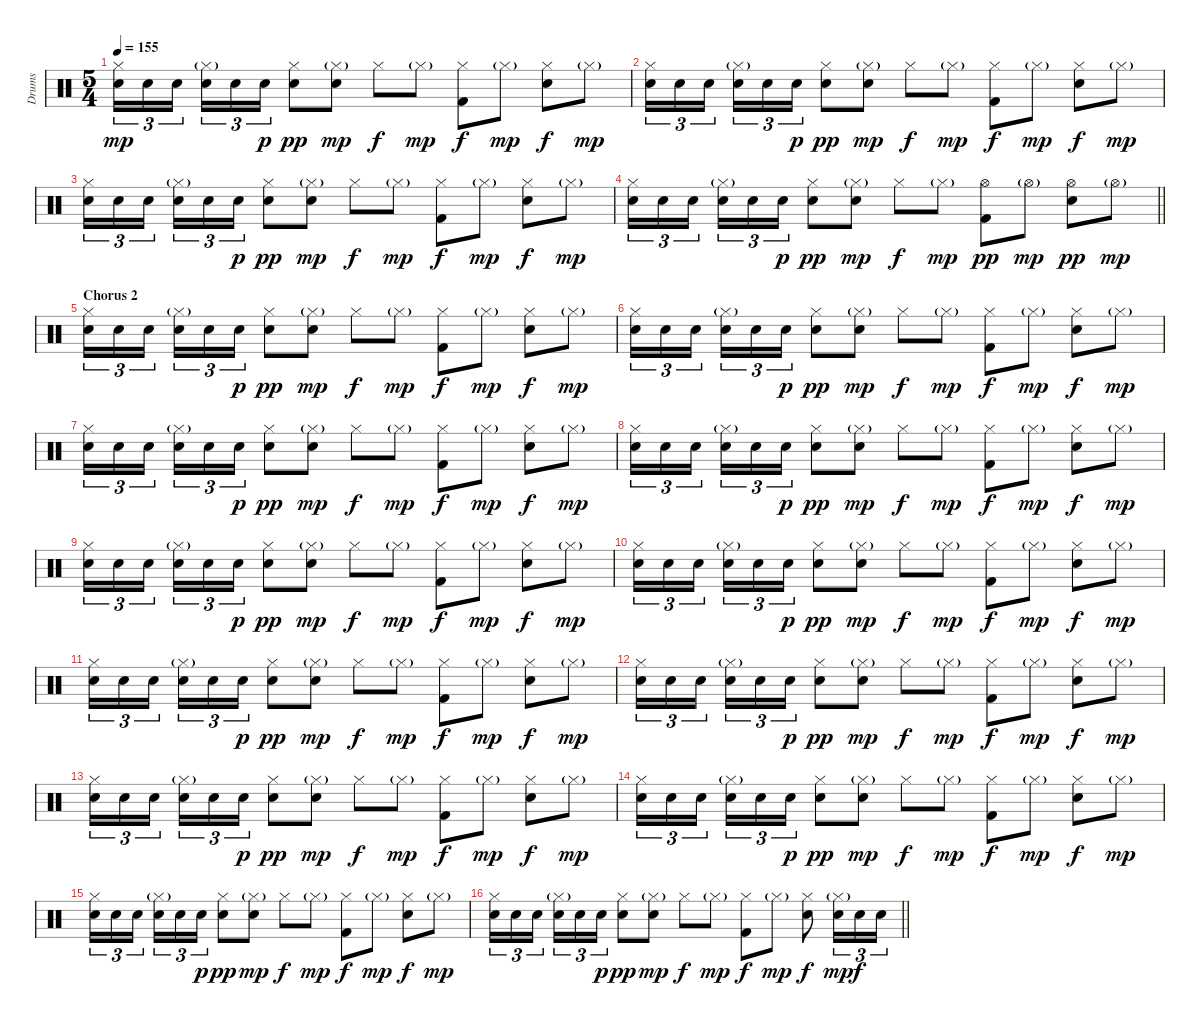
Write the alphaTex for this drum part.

\track ("Drums" "Drums") {instrument percussion}
\staff {score}
\articulation defaults
\ts (5 4)
\tempo 155
\clef neutral
\ks c
("Hi-Hat (closed)" "Electric Snare (hit)").16{tu (3 2) dy mp} "Electric Snare (hit)".16{tu (3 2)} "Electric Snare (hit)".16{tu (3 2) beam splitsecondary} ("Hi-Hat (closed)"{g} "Electric Snare (hit)").16{tu (3 2)} "Electric Snare (hit)".16{tu (3 2)} "Electric Snare (hit)".16{tu (3 2) dy p} ("Hi-Hat (closed)" "Electric Snare (hit)").8{dy pp} ("Hi-Hat (closed)"{g} "Electric Snare (hit)").8{dy mp} "Hi-Hat (closed)".8{dy f} "Hi-Hat (closed)"{g}.8{dy mp} ("Hi-Hat (closed)" "Kick (hit) 2").8{dy f} "Hi-Hat (closed)"{g}.8{dy mp} ("Hi-Hat (closed)" "Electric Snare (hit)").8{dy f} "Hi-Hat (closed)"{g}.8{dy mp} |
("Hi-Hat (closed)" "Electric Snare (hit)").16{tu (3 2)} "Electric Snare (hit)".16{tu (3 2)} "Electric Snare (hit)".16{tu (3 2) beam splitsecondary} ("Hi-Hat (closed)"{g} "Electric Snare (hit)").16{tu (3 2)} "Electric Snare (hit)".16{tu (3 2)} "Electric Snare (hit)".16{tu (3 2) dy p} ("Hi-Hat (closed)" "Electric Snare (hit)").8{dy pp} ("Hi-Hat (closed)"{g} "Electric Snare (hit)").8{dy mp} "Hi-Hat (closed)".8{dy f} "Hi-Hat (closed)"{g}.8{dy mp} ("Hi-Hat (closed)" "Kick (hit) 2").8{dy f} "Hi-Hat (closed)"{g}.8{dy mp} ("Hi-Hat (closed)" "Electric Snare (hit)").8{dy f} "Hi-Hat (closed)"{g}.8{dy mp} |
("Hi-Hat (closed)" "Electric Snare (hit)").16{tu (3 2)} "Electric Snare (hit)".16{tu (3 2)} "Electric Snare (hit)".16{tu (3 2) beam splitsecondary} ("Hi-Hat (closed)"{g} "Electric Snare (hit)").16{tu (3 2)} "Electric Snare (hit)".16{tu (3 2)} "Electric Snare (hit)".16{tu (3 2) dy p} ("Hi-Hat (closed)" "Electric Snare (hit)").8{dy pp} ("Hi-Hat (closed)"{g} "Electric Snare (hit)").8{dy mp} "Hi-Hat (closed)".8{dy f} "Hi-Hat (closed)"{g}.8{dy mp} ("Hi-Hat (closed)" "Kick (hit) 2").8{dy f} "Hi-Hat (closed)"{g}.8{dy mp} ("Hi-Hat (closed)" "Electric Snare (hit)").8{dy f} "Hi-Hat (closed)"{g}.8{dy mp} |
\barLineRight lightlight
("Hi-Hat (closed)" "Electric Snare (hit)").16{tu (3 2)} "Electric Snare (hit)".16{tu (3 2)} "Electric Snare (hit)".16{tu (3 2) beam splitsecondary} ("Hi-Hat (closed)"{g} "Electric Snare (hit)").16{tu (3 2)} "Electric Snare (hit)".16{tu (3 2)} "Electric Snare (hit)".16{tu (3 2) dy p} ("Hi-Hat (closed)" "Electric Snare (hit)").8{dy pp} ("Hi-Hat (closed)"{g} "Electric Snare (hit)").8{dy mp} "Hi-Hat (closed)".8{dy f} "Hi-Hat (closed)"{g}.8{dy mp} ("Hi-Hat (open)" "Kick (hit) 2").8{dy pp} "Hi-Hat (open)"{g}.8{dy mp} ("Hi-Hat (open)" "Electric Snare (hit)").8{dy pp} "Hi-Hat (open)"{g}.8{dy mp} |
\section ("" "Chorus 2")
("Hi-Hat (closed)" "Electric Snare (hit)").16{tu (3 2)} "Electric Snare (hit)".16{tu (3 2)} "Electric Snare (hit)".16{tu (3 2) beam splitsecondary} ("Hi-Hat (closed)"{g} "Electric Snare (hit)").16{tu (3 2)} "Electric Snare (hit)".16{tu (3 2)} "Electric Snare (hit)".16{tu (3 2) dy p} ("Hi-Hat (closed)" "Electric Snare (hit)").8{dy pp} ("Hi-Hat (closed)"{g} "Electric Snare (hit)").8{dy mp} "Hi-Hat (closed)".8{dy f} "Hi-Hat (closed)"{g}.8{dy mp} ("Hi-Hat (closed)" "Kick (hit) 2").8{dy f} "Hi-Hat (closed)"{g}.8{dy mp} ("Hi-Hat (closed)" "Electric Snare (hit)").8{dy f} "Hi-Hat (closed)"{g}.8{dy mp} |
("Hi-Hat (closed)" "Electric Snare (hit)").16{tu (3 2)} "Electric Snare (hit)".16{tu (3 2)} "Electric Snare (hit)".16{tu (3 2) beam splitsecondary} ("Hi-Hat (closed)"{g} "Electric Snare (hit)").16{tu (3 2)} "Electric Snare (hit)".16{tu (3 2)} "Electric Snare (hit)".16{tu (3 2) dy p} ("Hi-Hat (closed)" "Electric Snare (hit)").8{dy pp} ("Hi-Hat (closed)"{g} "Electric Snare (hit)").8{dy mp} "Hi-Hat (closed)".8{dy f} "Hi-Hat (closed)"{g}.8{dy mp} ("Hi-Hat (closed)" "Kick (hit) 2").8{dy f} "Hi-Hat (closed)"{g}.8{dy mp} ("Hi-Hat (closed)" "Electric Snare (hit)").8{dy f} "Hi-Hat (closed)"{g}.8{dy mp} |
("Hi-Hat (closed)" "Electric Snare (hit)").16{tu (3 2)} "Electric Snare (hit)".16{tu (3 2)} "Electric Snare (hit)".16{tu (3 2) beam splitsecondary} ("Hi-Hat (closed)"{g} "Electric Snare (hit)").16{tu (3 2)} "Electric Snare (hit)".16{tu (3 2)} "Electric Snare (hit)".16{tu (3 2) dy p} ("Hi-Hat (closed)" "Electric Snare (hit)").8{dy pp} ("Hi-Hat (closed)"{g} "Electric Snare (hit)").8{dy mp} "Hi-Hat (closed)".8{dy f} "Hi-Hat (closed)"{g}.8{dy mp} ("Hi-Hat (closed)" "Kick (hit) 2").8{dy f} "Hi-Hat (closed)"{g}.8{dy mp} ("Hi-Hat (closed)" "Electric Snare (hit)").8{dy f} "Hi-Hat (closed)"{g}.8{dy mp} |
("Hi-Hat (closed)" "Electric Snare (hit)").16{tu (3 2)} "Electric Snare (hit)".16{tu (3 2)} "Electric Snare (hit)".16{tu (3 2) beam splitsecondary} ("Hi-Hat (closed)"{g} "Electric Snare (hit)").16{tu (3 2)} "Electric Snare (hit)".16{tu (3 2)} "Electric Snare (hit)".16{tu (3 2) dy p} ("Hi-Hat (closed)" "Electric Snare (hit)").8{dy pp} ("Hi-Hat (closed)"{g} "Electric Snare (hit)").8{dy mp} "Hi-Hat (closed)".8{dy f} "Hi-Hat (closed)"{g}.8{dy mp} ("Hi-Hat (closed)" "Kick (hit) 2").8{dy f} "Hi-Hat (closed)"{g}.8{dy mp} ("Hi-Hat (closed)" "Electric Snare (hit)").8{dy f} "Hi-Hat (closed)"{g}.8{dy mp} |
("Hi-Hat (closed)" "Electric Snare (hit)").16{tu (3 2)} "Electric Snare (hit)".16{tu (3 2)} "Electric Snare (hit)".16{tu (3 2) beam splitsecondary} ("Hi-Hat (closed)"{g} "Electric Snare (hit)").16{tu (3 2)} "Electric Snare (hit)".16{tu (3 2)} "Electric Snare (hit)".16{tu (3 2) dy p} ("Hi-Hat (closed)" "Electric Snare (hit)").8{dy pp} ("Hi-Hat (closed)"{g} "Electric Snare (hit)").8{dy mp} "Hi-Hat (closed)".8{dy f} "Hi-Hat (closed)"{g}.8{dy mp} ("Hi-Hat (closed)" "Kick (hit) 2").8{dy f} "Hi-Hat (closed)"{g}.8{dy mp} ("Hi-Hat (closed)" "Electric Snare (hit)").8{dy f} "Hi-Hat (closed)"{g}.8{dy mp} |
("Hi-Hat (closed)" "Electric Snare (hit)").16{tu (3 2)} "Electric Snare (hit)".16{tu (3 2)} "Electric Snare (hit)".16{tu (3 2) beam splitsecondary} ("Hi-Hat (closed)"{g} "Electric Snare (hit)").16{tu (3 2)} "Electric Snare (hit)".16{tu (3 2)} "Electric Snare (hit)".16{tu (3 2) dy p} ("Hi-Hat (closed)" "Electric Snare (hit)").8{dy pp} ("Hi-Hat (closed)"{g} "Electric Snare (hit)").8{dy mp} "Hi-Hat (closed)".8{dy f} "Hi-Hat (closed)"{g}.8{dy mp} ("Hi-Hat (closed)" "Kick (hit) 2").8{dy f} "Hi-Hat (closed)"{g}.8{dy mp} ("Hi-Hat (closed)" "Electric Snare (hit)").8{dy f} "Hi-Hat (closed)"{g}.8{dy mp} |
("Hi-Hat (closed)" "Electric Snare (hit)").16{tu (3 2)} "Electric Snare (hit)".16{tu (3 2)} "Electric Snare (hit)".16{tu (3 2) beam splitsecondary} ("Hi-Hat (closed)"{g} "Electric Snare (hit)").16{tu (3 2)} "Electric Snare (hit)".16{tu (3 2)} "Electric Snare (hit)".16{tu (3 2) dy p} ("Hi-Hat (closed)" "Electric Snare (hit)").8{dy pp} ("Hi-Hat (closed)"{g} "Electric Snare (hit)").8{dy mp} "Hi-Hat (closed)".8{dy f} "Hi-Hat (closed)"{g}.8{dy mp} ("Hi-Hat (closed)" "Kick (hit) 2").8{dy f} "Hi-Hat (closed)"{g}.8{dy mp} ("Hi-Hat (closed)" "Electric Snare (hit)").8{dy f} "Hi-Hat (closed)"{g}.8{dy mp} |
("Hi-Hat (closed)" "Electric Snare (hit)").16{tu (3 2)} "Electric Snare (hit)".16{tu (3 2)} "Electric Snare (hit)".16{tu (3 2) beam splitsecondary} ("Hi-Hat (closed)"{g} "Electric Snare (hit)").16{tu (3 2)} "Electric Snare (hit)".16{tu (3 2)} "Electric Snare (hit)".16{tu (3 2) dy p} ("Hi-Hat (closed)" "Electric Snare (hit)").8{dy pp} ("Hi-Hat (closed)"{g} "Electric Snare (hit)").8{dy mp} "Hi-Hat (closed)".8{dy f} "Hi-Hat (closed)"{g}.8{dy mp} ("Hi-Hat (closed)" "Kick (hit) 2").8{dy f} "Hi-Hat (closed)"{g}.8{dy mp} ("Hi-Hat (closed)" "Electric Snare (hit)").8{dy f} "Hi-Hat (closed)"{g}.8{dy mp} |
("Hi-Hat (closed)" "Electric Snare (hit)").16{tu (3 2)} "Electric Snare (hit)".16{tu (3 2)} "Electric Snare (hit)".16{tu (3 2) beam splitsecondary} ("Hi-Hat (closed)"{g} "Electric Snare (hit)").16{tu (3 2)} "Electric Snare (hit)".16{tu (3 2)} "Electric Snare (hit)".16{tu (3 2) dy p} ("Hi-Hat (closed)" "Electric Snare (hit)").8{dy pp} ("Hi-Hat (closed)"{g} "Electric Snare (hit)").8{dy mp} "Hi-Hat (closed)".8{dy f} "Hi-Hat (closed)"{g}.8{dy mp} ("Hi-Hat (closed)" "Kick (hit) 2").8{dy f} "Hi-Hat (closed)"{g}.8{dy mp} ("Hi-Hat (closed)" "Electric Snare (hit)").8{dy f} "Hi-Hat (closed)"{g}.8{dy mp} |
("Hi-Hat (closed)" "Electric Snare (hit)").16{tu (3 2)} "Electric Snare (hit)".16{tu (3 2)} "Electric Snare (hit)".16{tu (3 2) beam splitsecondary} ("Hi-Hat (closed)"{g} "Electric Snare (hit)").16{tu (3 2)} "Electric Snare (hit)".16{tu (3 2)} "Electric Snare (hit)".16{tu (3 2) dy p} ("Hi-Hat (closed)" "Electric Snare (hit)").8{dy pp} ("Hi-Hat (closed)"{g} "Electric Snare (hit)").8{dy mp} "Hi-Hat (closed)".8{dy f} "Hi-Hat (closed)"{g}.8{dy mp} ("Hi-Hat (closed)" "Kick (hit) 2").8{dy f} "Hi-Hat (closed)"{g}.8{dy mp} ("Hi-Hat (closed)" "Electric Snare (hit)").8{dy f} "Hi-Hat (closed)"{g}.8{dy mp} |
("Hi-Hat (closed)" "Electric Snare (hit)").16{tu (3 2)} "Electric Snare (hit)".16{tu (3 2)} "Electric Snare (hit)".16{tu (3 2) beam splitsecondary} ("Hi-Hat (closed)"{g} "Electric Snare (hit)").16{tu (3 2)} "Electric Snare (hit)".16{tu (3 2)} "Electric Snare (hit)".16{tu (3 2) dy p} ("Hi-Hat (closed)" "Electric Snare (hit)").8{dy pp} ("Hi-Hat (closed)"{g} "Electric Snare (hit)").8{dy mp} "Hi-Hat (closed)".8{dy f} "Hi-Hat (closed)"{g}.8{dy mp} ("Hi-Hat (closed)" "Kick (hit) 2").8{dy f} "Hi-Hat (closed)"{g}.8{dy mp} ("Hi-Hat (closed)" "Electric Snare (hit)").8{dy f} "Hi-Hat (closed)"{g}.8{dy mp} |
\barLineRight lightlight
("Hi-Hat (closed)" "Electric Snare (hit)").16{tu (3 2)} "Electric Snare (hit)".16{tu (3 2)} "Electric Snare (hit)".16{tu (3 2) beam splitsecondary} ("Hi-Hat (closed)"{g} "Electric Snare (hit)").16{tu (3 2)} "Electric Snare (hit)".16{tu (3 2)} "Electric Snare (hit)".16{tu (3 2) dy p} ("Hi-Hat (closed)" "Electric Snare (hit)").8{dy pp} ("Hi-Hat (closed)"{g} "Electric Snare (hit)").8{dy mp} "Hi-Hat (closed)".8{dy f} "Hi-Hat (closed)"{g}.8{dy mp} ("Hi-Hat (closed)" "Kick (hit) 2").8{dy f} "Hi-Hat (closed)"{g}.8{dy mp} ("Hi-Hat (closed)" "Electric Snare (hit)").8{dy f} ("Hi-Hat (closed)"{g} "Electric Snare (hit)").16{tu (3 2) dy mp} "Electric Snare (hit)".16{tu (3 2) dy f} "Electric Snare (hit)".16{tu (3 2)}
